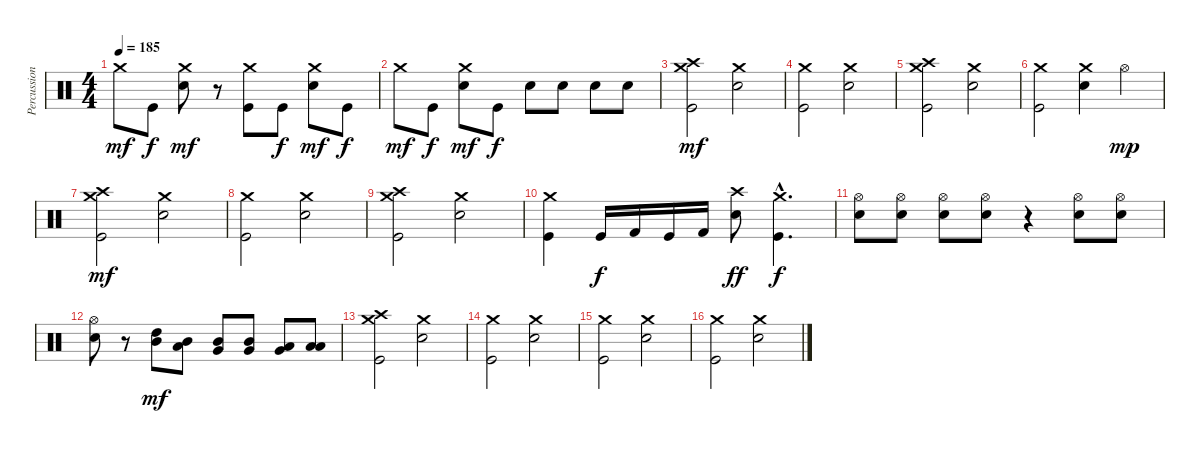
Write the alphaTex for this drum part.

\track ("Percussions" "Percussion") {instrument percussion}
\staff {score}
\articulation defaults
\ts (4 4)
\tempo 185
\clef neutral
\ks c "Crash medium (hit)".8{dy mf} "Kick (hit)".8{dy f}
("Electric Snare (hit)" "Crash medium (hit)").8{dy mf} r.8 ("Kick (hit)" "Crash medium (hit)").8 "Kick (hit)".8{dy f} ("Electric Snare (hit)" "Crash medium (hit)").8{dy mf} "Kick (hit)".8{dy f} |
"Crash medium (hit)".8{dy mf} "Kick (hit)".8{dy f} ("Electric Snare (hit)" "Crash medium (hit)").8{dy mf} "Kick (hit)".8{dy f} "Electric Snare (hit)".8 "Electric Snare (hit)".8 "Electric Snare (hit)".8 "Electric Snare (hit)".8 |
("Kick (hit)" "Crash medium (hit)" "Crash high (hit)").2{dy mf} ("Electric Snare (hit)" "Crash medium (hit)").2 |
("Kick (hit)" "Crash medium (hit)").2 ("Electric Snare (hit)" "Crash medium (hit)").2 |
("Kick (hit)" "Crash medium (hit)" "Crash high (hit)").2 ("Electric Snare (hit)" "Crash medium (hit)").2 |
("Kick (hit)" "Crash medium (hit)").2 ("Electric Snare (hit)" "Crash medium (hit)").4 "Hi-Hat (open)".4{dy mp} |
("Kick (hit)" "Crash medium (hit)" "Crash high (hit)").2{dy mf} ("Electric Snare (hit)" "Crash medium (hit)").2 |
("Kick (hit)" "Crash medium (hit)").2 ("Electric Snare (hit)" "Crash medium (hit)").2 |
("Kick (hit)" "Crash medium (hit)" "Crash high (hit)").2 ("Electric Snare (hit)" "Crash medium (hit)").2 |
("Kick (hit)" "Crash medium (hit)").4 "Kick (hit)".16{dy f} "Kick (hit) 2".16 "Kick (hit)".16 "Kick (hit) 2".16 ("Electric Snare (hit)" "Crash high (hit)").8{dy ff} ("Kick (hit)"{hac} "Crash medium (hit)"{hac}).4{d dy f} |
("Electric Snare (hit)" "Hi-Hat (open)").8 ("Electric Snare (hit)" "Hi-Hat (open)").8 ("Electric Snare (hit)" "Hi-Hat (open)").8 ("Electric Snare (hit)" "Hi-Hat (open)").8 r.4 ("Electric Snare (hit)" "Hi-Hat (open)").8 ("Electric Snare (hit)" "Hi-Hat (open)").8 |
("Electric Snare (hit)" "Hi-Hat (open)").8 r.8 ("Mid Tom (hit)" "High Tom (hit)").8{dy mf} ("Low Tom (hit)" "Mid Tom (hit)").8 ("Very Low Tom (hit)" "Mid Tom (hit)").8 ("Very Low Tom (hit)" "Mid Tom (hit)").8 ("Very Low Tom (hit)" "Low Tom (hit)").8 ("Low Floor Tom (hit)" "Low Tom (hit)").8 |
("Kick (hit)" "Crash medium (hit)" "Crash high (hit)").2 ("Electric Snare (hit)" "Crash medium (hit)").2 |
("Kick (hit)" "Crash medium (hit)").2 ("Electric Snare (hit)" "Crash medium (hit)").2 |
("Kick (hit)" "Crash medium (hit)").2 ("Electric Snare (hit)" "Crash medium (hit)").2 |
("Kick (hit)" "Crash medium (hit)").2 ("Electric Snare (hit)" "Crash medium (hit)").2
